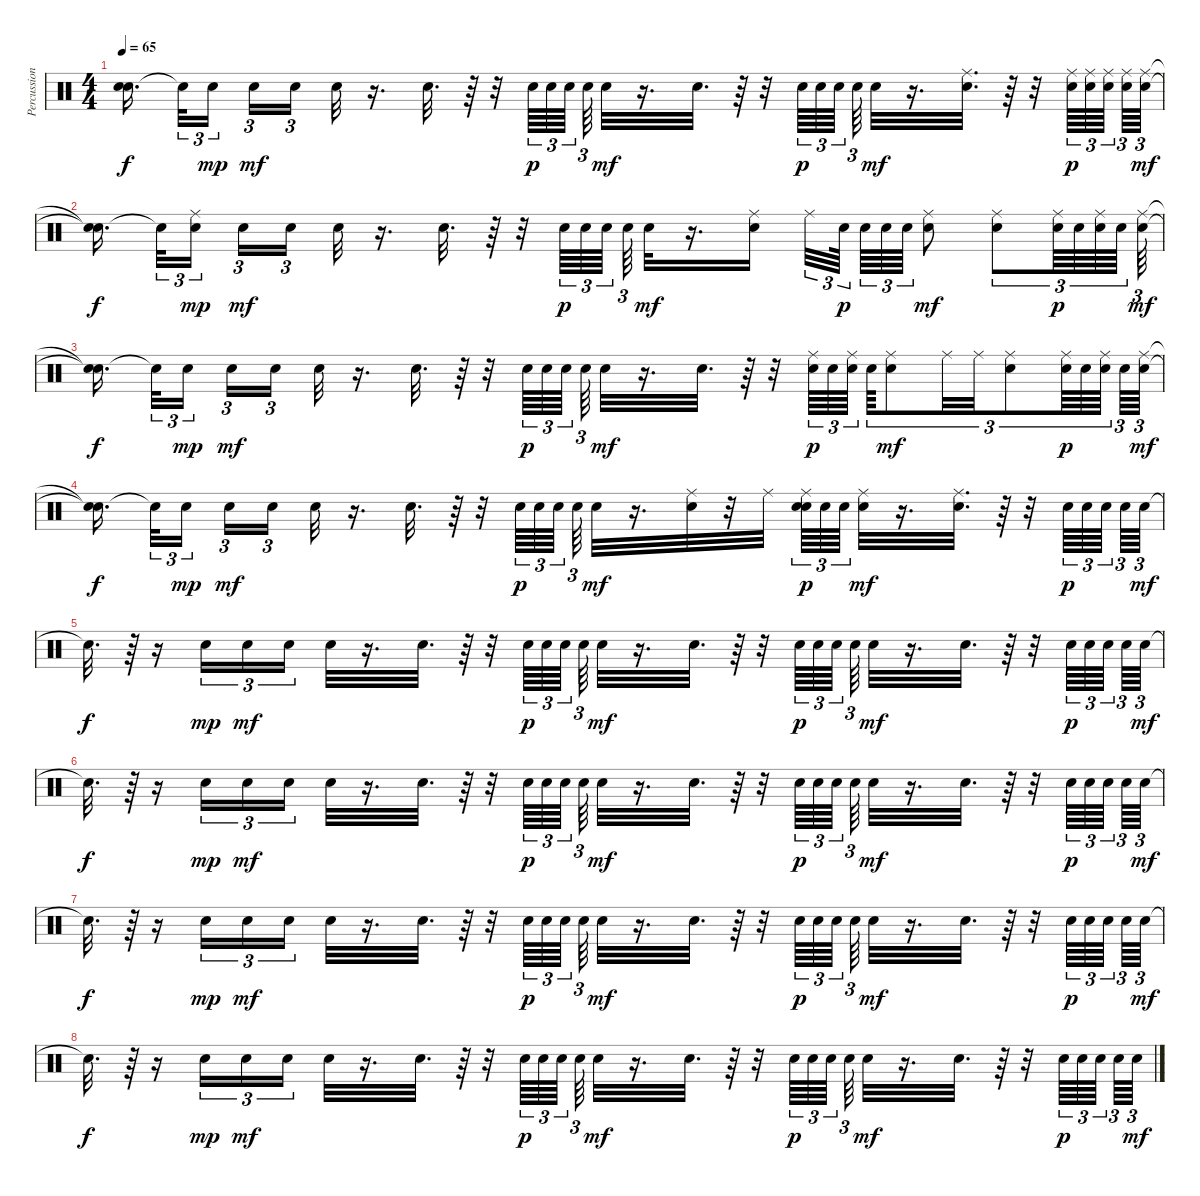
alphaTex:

\track ("Percussioni" "Percussion") {instrument percussion}
\staff {score}
\articulation defaults
\ts (4 4)
\tempo 65
\clef neutral
\ks c
("Snare (hit)"{t} "Snare (hit)"{t}).16{d dy f beam splitsecondary} "Snare (hit)"{t}.32{tu (3 2)} "Snare (hit) 2".16{tu (3 2) dy mp beam splitsecondary} "Snare (hit) 2".16{tu (3 2) dy mf} "Snare (hit) 2".16{tu (3 2) beam splitsecondary} "Snare (hit) 2".32 r.16{d} "Snare (hit) 2".32{d} r.64 r.32 "Snare (hit) 2".64{tu (3 2) dy p} "Snare (hit) 2".64{tu (3 2)} "Snare (hit) 2".64{tu (3 2) beam splitsecondary} "Snare (hit) 2".64{tu (3 2)} "Snare (hit) 2".32{dy mf} r.16{d} "Snare (hit) 2".32{d} r.64 r.32 "Snare (hit) 2".64{tu (3 2) dy p} "Snare (hit) 2".64{tu (3 2)} "Snare (hit) 2".64{tu (3 2)} "Snare (hit) 2".64{tu (3 2)} "Snare (hit) 2".32{dy mf} r.16{d} ("Ride (middle)" "Snare (hit) 2").32{d} r.64 r.32 ("Ride (middle)" "Snare (hit) 2").64{tu (3 2) dy p} ("Ride (middle)" "Snare (hit) 2").64{tu (3 2)} ("Ride (middle)" "Snare (hit) 2").64{tu (3 2) beam splitsecondary} ("Ride (middle)" "Snare (hit) 2").64{tu (3 2)} ("Ride (middle)" "Snare (hit) 2").64{tu (3 2) dy mf} |
("Snare (hit)"{t} "Snare (hit)"{t}).16{d dy f beam splitsecondary} "Snare (hit)"{t}.32{tu (3 2)} ("Ride (middle)" "Snare (hit) 2").16{tu (3 2) dy mp beam splitsecondary} "Snare (hit) 2".16{tu (3 2) dy mf} "Snare (hit) 2".16{tu (3 2) beam splitsecondary} "Snare (hit) 2".32 r.16{d} "Snare (hit) 2".32{d} r.64 r.32 "Snare (hit) 2".64{tu (3 2) dy p} "Snare (hit) 2".64{tu (3 2)} "Snare (hit) 2".64{tu (3 2) beam splitsecondary} "Snare (hit) 2".64{tu (3 2)} "Snare (hit) 2".32{dy mf} r.16{d} ("Ride (middle)" "Snare (hit) 2").16{beam splitsecondary} "Ride (middle)".32{tu (3 2)} "Snare (hit) 2".64{tu (3 2) dy p beam splitsecondary} "Snare (hit) 2".64{tu (3 2)} "Snare (hit) 2".64{tu (3 2)} "Snare (hit) 2".64{tu (3 2)} ("Ride (middle)" "Snare (hit) 2").8{dy mf} ("Ride (middle)" "Snare (hit) 2").8{tu (3 2)} ("Ride (middle)" "Snare (hit) 2").64{tu (3 2) dy p} "Snare (hit) 2".64{tu (3 2)} ("Ride (middle)" "Snare (hit) 2").64{tu (3 2)} "Snare (hit) 2".64{tu (3 2)} ("Ride (middle)" "Snare (hit) 2").64{tu (3 2) dy mf} |
("Snare (hit)"{t} "Snare (hit)"{t}).16{d dy f beam splitsecondary} "Snare (hit)"{t}.32{tu (3 2)} "Snare (hit) 2".16{tu (3 2) dy mp beam splitsecondary} "Snare (hit) 2".16{tu (3 2) dy mf} "Snare (hit) 2".16{tu (3 2) beam splitsecondary} "Snare (hit) 2".32 r.16{d} "Snare (hit) 2".32{d} r.64 r.32 "Snare (hit) 2".64{tu (3 2) dy p} "Snare (hit) 2".64{tu (3 2)} "Snare (hit) 2".64{tu (3 2) beam splitsecondary} "Snare (hit) 2".64{tu (3 2)} "Snare (hit) 2".32{dy mf} r.16{d} "Snare (hit) 2".32{d} r.64 r.32 ("Ride (middle)" "Snare (hit) 2").64{tu (3 2) dy p} "Snare (hit) 2".64{tu (3 2)} ("Ride (middle)" "Snare (hit) 2").64{tu (3 2)} "Snare (hit) 2".64{tu (3 2)} ("Ride (middle)" "Snare (hit) 2").8{tu (3 2) dy mf} "Ride (middle)".32{tu (3 2)} "Ride (middle)".32{tu (3 2)} ("Ride (middle)" "Snare (hit) 2").8{tu (3 2)} ("Ride (middle)" "Snare (hit) 2").64{tu (3 2) dy p} "Snare (hit) 2".64{tu (3 2)} ("Ride (middle)" "Snare (hit) 2").64{tu (3 2)} "Snare (hit) 2".64{tu (3 2)} ("Ride (middle)" "Snare (hit) 2").64{tu (3 2) dy mf} |
("Snare (hit)"{t} "Snare (hit)"{t}).16{d dy f beam splitsecondary} "Snare (hit)"{t}.32{tu (3 2)} "Snare (hit) 2".16{tu (3 2) dy mp beam splitsecondary} "Snare (hit) 2".16{tu (3 2) dy mf} "Snare (hit) 2".16{tu (3 2) beam splitsecondary} "Snare (hit) 2".32 r.16{d} "Snare (hit) 2".32{d} r.64 r.32 "Snare (hit) 2".64{tu (3 2) dy p} "Snare (hit) 2".64{tu (3 2)} "Snare (hit) 2".64{tu (3 2) beam splitsecondary} "Snare (hit) 2".64{tu (3 2)} "Snare (hit) 2".32{dy mf} r.16{d} ("Ride (middle)" "Snare (hit) 2").32 r.32 "Ride (middle)".32{beam splitsecondary} ("Snare (hit) 2" "Ride (middle)" "Snare (hit) 2").64{tu (3 2) dy p} "Snare (hit) 2".64{tu (3 2)} "Snare (hit) 2".64{tu (3 2)} ("Snare (hit) 2" "Ride (middle)").32{dy mf} r.16{d} ("Ride (middle)" "Snare (hit) 2").32{d} r.64 r.32 "Snare (hit) 2".64{tu (3 2) dy p} "Snare (hit) 2".64{tu (3 2)} "Snare (hit) 2".64{tu (3 2)} "Snare (hit) 2".64{tu (3 2)} "Snare (hit) 2".64{tu (3 2) dy mf} |
"Snare (hit)"{t}.32{d dy f} r.64 r.16 "Snare (hit) 2".16{tu (3 2) dy mp} "Snare (hit) 2".16{tu (3 2) dy mf} "Snare (hit) 2".16{tu (3 2)} "Snare (hit) 2".32 r.16{d} "Snare (hit) 2".32{d} r.64 r.32 "Snare (hit) 2".64{tu (3 2) dy p} "Snare (hit) 2".64{tu (3 2)} "Snare (hit) 2".64{tu (3 2)} "Snare (hit) 2".64{tu (3 2)} "Snare (hit) 2".32{dy mf} r.16{d} "Snare (hit) 2".32{d} r.64 r.32 "Snare (hit) 2".64{tu (3 2) dy p} "Snare (hit) 2".64{tu (3 2)} "Snare (hit) 2".64{tu (3 2) beam splitsecondary} "Snare (hit) 2".64{tu (3 2)} "Snare (hit) 2".32{dy mf} r.16{d} "Snare (hit) 2".32{d} r.64 r.32 "Snare (hit) 2".64{tu (3 2) dy p} "Snare (hit) 2".64{tu (3 2)} "Snare (hit) 2".64{tu (3 2) beam splitsecondary} "Snare (hit) 2".64{tu (3 2)} "Snare (hit) 2".64{tu (3 2) dy mf} |
"Snare (hit)"{t}.32{d dy f} r.64 r.16 "Snare (hit) 2".16{tu (3 2) dy mp} "Snare (hit) 2".16{tu (3 2) dy mf} "Snare (hit) 2".16{tu (3 2)} "Snare (hit) 2".32 r.16{d} "Snare (hit) 2".32{d} r.64 r.32 "Snare (hit) 2".64{tu (3 2) dy p} "Snare (hit) 2".64{tu (3 2)} "Snare (hit) 2".64{tu (3 2)} "Snare (hit) 2".64{tu (3 2)} "Snare (hit) 2".32{dy mf} r.16{d} "Snare (hit) 2".32{d} r.64 r.32 "Snare (hit) 2".64{tu (3 2) dy p} "Snare (hit) 2".64{tu (3 2)} "Snare (hit) 2".64{tu (3 2) beam splitsecondary} "Snare (hit) 2".64{tu (3 2)} "Snare (hit) 2".32{dy mf} r.16{d} "Snare (hit) 2".32{d} r.64 r.32 "Snare (hit) 2".64{tu (3 2) dy p} "Snare (hit) 2".64{tu (3 2)} "Snare (hit) 2".64{tu (3 2) beam splitsecondary} "Snare (hit) 2".64{tu (3 2)} "Snare (hit) 2".64{tu (3 2) dy mf} |
"Snare (hit)"{t}.32{d dy f} r.64 r.16 "Snare (hit) 2".16{tu (3 2) dy mp} "Snare (hit) 2".16{tu (3 2) dy mf} "Snare (hit) 2".16{tu (3 2)} "Snare (hit) 2".32 r.16{d} "Snare (hit) 2".32{d} r.64 r.32 "Snare (hit) 2".64{tu (3 2) dy p} "Snare (hit) 2".64{tu (3 2)} "Snare (hit) 2".64{tu (3 2)} "Snare (hit) 2".64{tu (3 2)} "Snare (hit) 2".32{dy mf} r.16{d} "Snare (hit) 2".32{d} r.64 r.32 "Snare (hit) 2".64{tu (3 2) dy p} "Snare (hit) 2".64{tu (3 2)} "Snare (hit) 2".64{tu (3 2) beam splitsecondary} "Snare (hit) 2".64{tu (3 2)} "Snare (hit) 2".32{dy mf} r.16{d} "Snare (hit) 2".32{d} r.64 r.32 "Snare (hit) 2".64{tu (3 2) dy p} "Snare (hit) 2".64{tu (3 2)} "Snare (hit) 2".64{tu (3 2) beam splitsecondary} "Snare (hit) 2".64{tu (3 2)} "Snare (hit) 2".64{tu (3 2) dy mf} |
"Snare (hit)"{t}.32{d dy f} r.64 r.16 "Snare (hit) 2".16{tu (3 2) dy mp} "Snare (hit) 2".16{tu (3 2) dy mf} "Snare (hit) 2".16{tu (3 2)} "Snare (hit) 2".32 r.16{d} "Snare (hit) 2".32{d} r.64 r.32 "Snare (hit) 2".64{tu (3 2) dy p} "Snare (hit) 2".64{tu (3 2)} "Snare (hit) 2".64{tu (3 2)} "Snare (hit) 2".64{tu (3 2)} "Snare (hit) 2".32{dy mf} r.16{d} "Snare (hit) 2".32{d} r.64 r.32 "Snare (hit) 2".64{tu (3 2) dy p} "Snare (hit) 2".64{tu (3 2)} "Snare (hit) 2".64{tu (3 2) beam splitsecondary} "Snare (hit) 2".64{tu (3 2)} "Snare (hit) 2".32{dy mf} r.16{d} "Snare (hit) 2".32{d} r.64 r.32 "Snare (hit) 2".64{tu (3 2) dy p} "Snare (hit) 2".64{tu (3 2)} "Snare (hit) 2".64{tu (3 2) beam splitsecondary} "Snare (hit) 2".64{tu (3 2)} "Snare (hit) 2".64{tu (3 2) dy mf}
